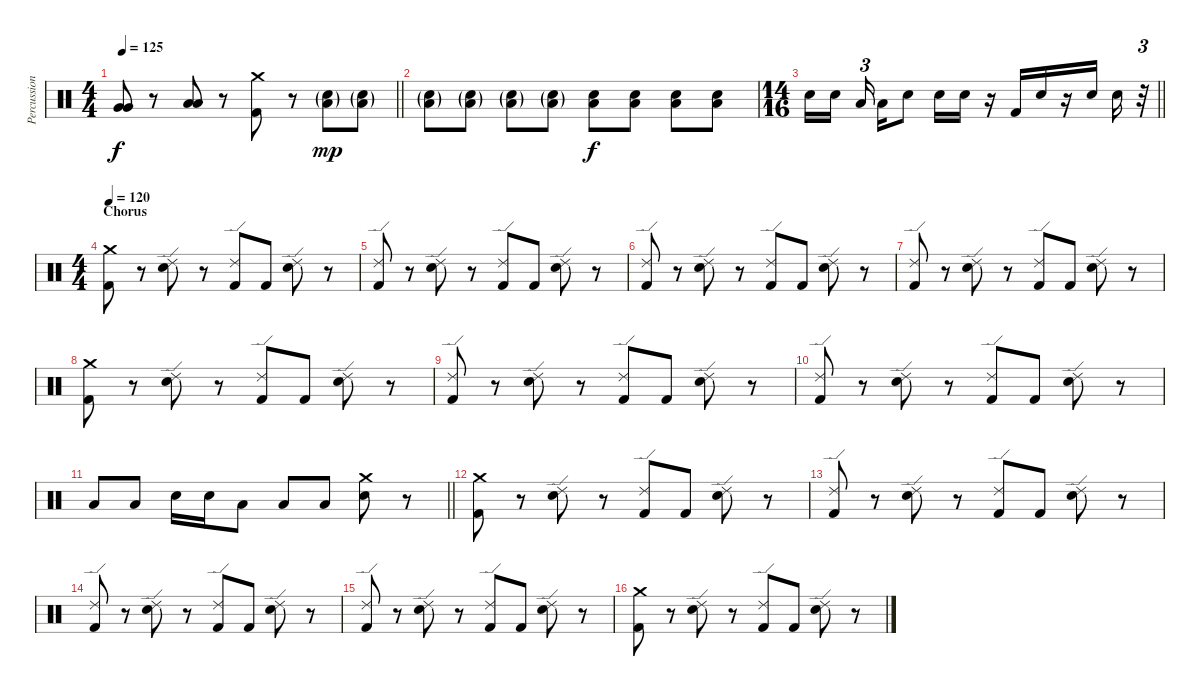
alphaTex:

\track ("Percussion" "Percussion") {instrument percussion}
\staff {score}
\articulation defaults
\ts (4 4)
\tempo 125
\clef neutral
\barLineRight lightlight
\ks c
("Very Low Tom (hit)" "Very Low Tom (hit)").8{dy f} r.8 ("Low Tom (hit)" "Low Tom (hit)").8 r.8 ("Crash medium (hit)" "Kick (hit) 2").8 r.8 ("Electric Snare (hit)"{g} "Low Tom (hit)"{g}).8{dy mp} ("Electric Snare (hit)"{g} "Low Tom (hit)"{g}).8 |
("Electric Snare (hit)"{g} "Low Tom (hit)"{g}).8 ("Electric Snare (hit)"{g} "Low Tom (hit)"{g}).8 ("Electric Snare (hit)"{g} "Low Tom (hit)"{g}).8 ("Electric Snare (hit)"{g} "Low Tom (hit)"{g}).8 ("Electric Snare (hit)" "Low Tom (hit)").8{dy f} ("Electric Snare (hit)" "Low Tom (hit)").8 ("Electric Snare (hit)" "Low Tom (hit)").8 ("Electric Snare (hit)" "Low Tom (hit)").8 |
\ts (14 16)
\barLineRight lightlight "Electric Snare (hit)".16 "Electric Snare (hit)".16 "Low Tom (hit)".16{tu (3 2)} "Low Tom (hit)".16 "Electric Snare (hit)".8 "Electric Snare (hit)".16 "Electric Snare (hit)".16
r.16 "Kick (hit) 2".16 "Electric Snare (hit)".16 r.16 "Electric Snare (hit)".16 "Electric Snare (hit)".16 r.32{tu (3 2)} |
\ts (4 4)
\section ("" "Chorus")
\tempo 120
("Crash medium (hit)" "Kick (hit) 2").8 r.8 ("Ride (edge) 2" "Electric Snare (hit)").8 r.8 ("Ride (edge) 2" "Kick (hit) 2").8 "Kick (hit) 2".8 ("Ride (edge) 2" "Electric Snare (hit)").8 r.8 |
("Ride (edge) 2" "Kick (hit) 2").8 r.8 ("Ride (edge) 2" "Electric Snare (hit)").8 r.8 ("Ride (edge) 2" "Kick (hit) 2").8 "Kick (hit) 2".8 ("Ride (edge) 2" "Electric Snare (hit)").8 r.8 |
("Ride (edge) 2" "Kick (hit) 2").8 r.8 ("Ride (edge) 2" "Electric Snare (hit)").8 r.8 ("Ride (edge) 2" "Kick (hit) 2").8 "Kick (hit) 2".8 ("Ride (edge) 2" "Electric Snare (hit)").8 r.8 |
("Ride (edge) 2" "Kick (hit) 2").8 r.8 ("Ride (edge) 2" "Electric Snare (hit)").8 r.8 ("Ride (edge) 2" "Kick (hit) 2").8 "Kick (hit) 2".8 ("Ride (edge) 2" "Electric Snare (hit)").8 r.8 |
("Crash medium (hit)" "Kick (hit) 2").8 r.8 ("Ride (edge) 2" "Electric Snare (hit)").8 r.8 ("Ride (edge) 2" "Kick (hit) 2").8 "Kick (hit) 2".8 ("Ride (edge) 2" "Electric Snare (hit)").8 r.8 |
("Ride (edge) 2" "Kick (hit) 2").8 r.8 ("Ride (edge) 2" "Electric Snare (hit)").8 r.8 ("Ride (edge) 2" "Kick (hit) 2").8 "Kick (hit) 2".8 ("Ride (edge) 2" "Electric Snare (hit)").8 r.8 |
("Ride (edge) 2" "Kick (hit) 2").8 r.8 ("Ride (edge) 2" "Electric Snare (hit)").8 r.8 ("Ride (edge) 2" "Kick (hit) 2").8 "Kick (hit) 2".8 ("Ride (edge) 2" "Electric Snare (hit)").8 r.8 |
\barLineRight lightlight "Low Tom (hit)".8 "Low Tom (hit)".8 "Electric Snare (hit)".16 "Electric Snare (hit)".16 "Low Tom (hit)".8 "Low Tom (hit)".8 "Low Tom (hit)".8
("Crash medium (hit)" "Electric Snare (hit)").8 r.8 |
("Crash medium (hit)" "Kick (hit) 2").8 r.8 ("Ride (edge) 2" "Electric Snare (hit)").8 r.8 ("Ride (edge) 2" "Kick (hit) 2").8 "Kick (hit) 2".8 ("Ride (edge) 2" "Electric Snare (hit)").8 r.8 |
("Ride (edge) 2" "Kick (hit) 2").8 r.8 ("Ride (edge) 2" "Electric Snare (hit)").8 r.8 ("Ride (edge) 2" "Kick (hit) 2").8 "Kick (hit) 2".8 ("Ride (edge) 2" "Electric Snare (hit)").8 r.8 |
("Ride (edge) 2" "Kick (hit) 2").8 r.8 ("Ride (edge) 2" "Electric Snare (hit)").8 r.8 ("Ride (edge) 2" "Kick (hit) 2").8 "Kick (hit) 2".8 ("Ride (edge) 2" "Electric Snare (hit)").8 r.8 |
("Ride (edge) 2" "Kick (hit) 2").8 r.8 ("Ride (edge) 2" "Electric Snare (hit)").8 r.8 ("Ride (edge) 2" "Kick (hit) 2").8 "Kick (hit) 2".8 ("Ride (edge) 2" "Electric Snare (hit)").8 r.8 |
("Crash medium (hit)" "Kick (hit) 2").8 r.8 ("Ride (edge) 2" "Electric Snare (hit)").8 r.8 ("Ride (edge) 2" "Kick (hit) 2").8 "Kick (hit) 2".8 ("Ride (edge) 2" "Electric Snare (hit)").8 r.8
